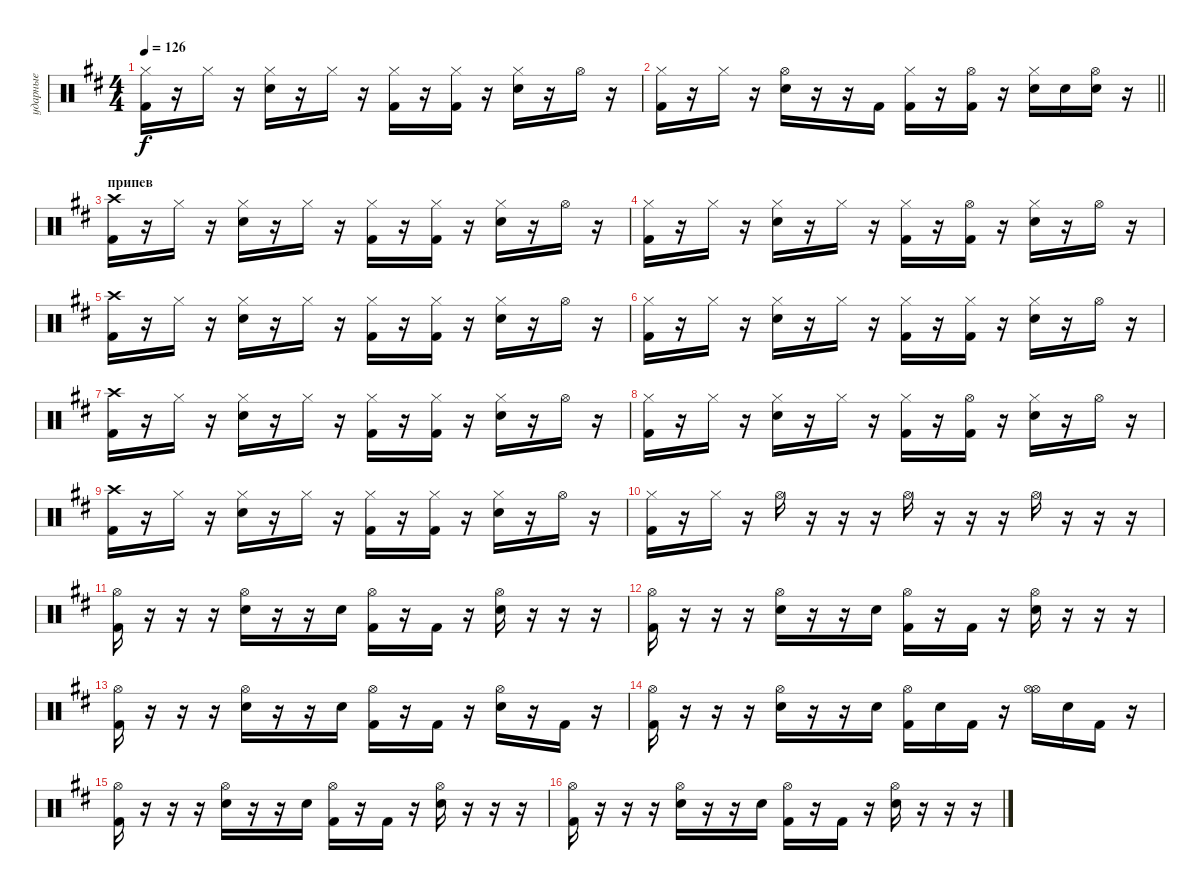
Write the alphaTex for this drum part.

\track ("ударные" "ударные") {instrument percussion}
\staff {score}
\articulation defaults
\ts (4 4)
\tempo 126
\clef neutral
\ks d
("Hi-Hat (closed)" "Kick (hit) 2").16{dy f} r.16 "Hi-Hat (closed)".16 r.16 ("Hi-Hat (closed)" "Electric Snare (hit)").16 r.16 "Hi-Hat (closed)".16 r.16 ("Hi-Hat (closed)" "Kick (hit) 2").16 r.16 ("Hi-Hat (closed)" "Kick (hit) 2").16 r.16 ("Hi-Hat (closed)" "Electric Snare (hit)").16 r.16 "Hi-Hat (open)".16 r.16 |
\barLineRight lightlight
("Hi-Hat (closed)" "Kick (hit) 2").16 r.16 "Hi-Hat (closed)".16 r.16 ("Hi-Hat (open)" "Electric Snare (hit)").16 r.16 r.16 "Kick (hit) 2".16 ("Hi-Hat (closed)" "Kick (hit) 2").16 r.16 ("Hi-Hat (open)" "Kick (hit) 2").16 r.16 ("Hi-Hat (closed)" "Electric Snare (hit)").16 "Electric Snare (hit)".16 ("Electric Snare (hit)" "Hi-Hat (open)").16 r.16 |
\section ("" "припев")
("Crash high (hit)" "Kick (hit) 2").16 r.16 "Hi-Hat (closed)".16 r.16 ("Hi-Hat (closed)" "Electric Snare (hit)").16 r.16 "Hi-Hat (closed)".16 r.16 ("Hi-Hat (closed)" "Kick (hit) 2").16 r.16 ("Hi-Hat (closed)" "Kick (hit) 2").16 r.16 ("Hi-Hat (closed)" "Electric Snare (hit)").16 r.16 "Hi-Hat (open)".16 r.16 |
("Hi-Hat (closed)" "Kick (hit) 2").16 r.16 "Hi-Hat (closed)".16 r.16 ("Hi-Hat (closed)" "Electric Snare (hit)").16 r.16 "Hi-Hat (closed)".16 r.16 ("Hi-Hat (closed)" "Kick (hit) 2").16 r.16 ("Hi-Hat (open)" "Kick (hit) 2").16 r.16 ("Hi-Hat (closed)" "Electric Snare (hit)").16 r.16 "Hi-Hat (open)".16 r.16 |
("Crash high (hit)" "Kick (hit) 2").16 r.16 "Hi-Hat (closed)".16 r.16 ("Hi-Hat (closed)" "Electric Snare (hit)").16 r.16 "Hi-Hat (closed)".16 r.16 ("Hi-Hat (closed)" "Kick (hit) 2").16 r.16 ("Hi-Hat (closed)" "Kick (hit) 2").16 r.16 ("Hi-Hat (closed)" "Electric Snare (hit)").16 r.16 "Hi-Hat (open)".16 r.16 |
("Hi-Hat (closed)" "Kick (hit) 2").16 r.16 "Hi-Hat (closed)".16 r.16 ("Hi-Hat (closed)" "Electric Snare (hit)").16 r.16 "Hi-Hat (closed)".16 r.16 ("Hi-Hat (closed)" "Kick (hit) 2").16 r.16 ("Hi-Hat (closed)" "Kick (hit) 2").16 r.16 ("Hi-Hat (closed)" "Electric Snare (hit)").16 r.16 "Hi-Hat (open)".16 r.16 |
("Crash high (hit)" "Kick (hit) 2").16 r.16 "Hi-Hat (closed)".16 r.16 ("Hi-Hat (closed)" "Electric Snare (hit)").16 r.16 "Hi-Hat (closed)".16 r.16 ("Hi-Hat (closed)" "Kick (hit) 2").16 r.16 ("Hi-Hat (closed)" "Kick (hit) 2").16 r.16 ("Hi-Hat (closed)" "Electric Snare (hit)").16 r.16 "Hi-Hat (open)".16 r.16 |
("Hi-Hat (closed)" "Kick (hit) 2").16 r.16 "Hi-Hat (closed)".16 r.16 ("Hi-Hat (closed)" "Electric Snare (hit)").16 r.16 "Hi-Hat (closed)".16 r.16 ("Hi-Hat (closed)" "Kick (hit) 2").16 r.16 ("Hi-Hat (open)" "Kick (hit) 2").16 r.16 ("Hi-Hat (closed)" "Electric Snare (hit)").16 r.16 "Hi-Hat (open)".16 r.16 |
("Crash high (hit)" "Kick (hit) 2").16 r.16 "Hi-Hat (closed)".16 r.16 ("Hi-Hat (closed)" "Electric Snare (hit)").16 r.16 "Hi-Hat (closed)".16 r.16 ("Hi-Hat (closed)" "Kick (hit) 2").16 r.16 ("Hi-Hat (closed)" "Kick (hit) 2").16 r.16 ("Hi-Hat (closed)" "Electric Snare (hit)").16 r.16 "Hi-Hat (open)".16 r.16 |
("Hi-Hat (closed)" "Kick (hit) 2").16 r.16 "Hi-Hat (closed)".16 r.16 "Hi-Hat (open)".16 r.16 r.16 r.16 "Hi-Hat (open)".16 r.16 r.16 r.16 "Hi-Hat (open)".16 r.16 r.16 r.16 |
("Hi-Hat (open)" "Kick (hit) 2").16 r.16 r.16 r.16 ("Hi-Hat (open)" "Electric Snare (hit)").16 r.16 r.16 "Electric Snare (hit)".16 ("Hi-Hat (open)" "Kick (hit) 2").16 r.16 "Kick (hit) 2".16 r.16 ("Hi-Hat (open)" "Electric Snare (hit)").16 r.16 r.16 r.16 |
("Hi-Hat (open)" "Kick (hit) 2").16 r.16 r.16 r.16 ("Hi-Hat (open)" "Electric Snare (hit)").16 r.16 r.16 "Electric Snare (hit)".16 ("Hi-Hat (open)" "Kick (hit) 2").16 r.16 "Kick (hit) 2".16 r.16 ("Hi-Hat (open)" "Electric Snare (hit)").16 r.16 r.16 r.16 |
("Hi-Hat (open)" "Kick (hit) 2").16 r.16 r.16 r.16 ("Hi-Hat (open)" "Electric Snare (hit)").16 r.16 r.16 "Electric Snare (hit)".16 ("Hi-Hat (open)" "Kick (hit) 2").16 r.16 "Kick (hit) 2".16 r.16 ("Hi-Hat (open)" "Electric Snare (hit)").16 r.16 "Kick (hit) 2".16 r.16 |
("Hi-Hat (open)" "Kick (hit) 2").16 r.16 r.16 r.16 ("Hi-Hat (open)" "Electric Snare (hit)").16 r.16 r.16 "Electric Snare (hit)".16 ("Hi-Hat (open)" "Kick (hit) 2").16 "Electric Snare (hit)".16 "Kick (hit) 2".16 r.16 ("Hi-Hat (open)" "Hi-Hat (open)").16 "Electric Snare (hit)".16 "Kick (hit) 2".16 r.16 |
("Hi-Hat (open)" "Kick (hit) 2").16 r.16 r.16 r.16 ("Hi-Hat (open)" "Electric Snare (hit)").16 r.16 r.16 "Electric Snare (hit)".16 ("Hi-Hat (open)" "Kick (hit) 2").16 r.16 "Kick (hit) 2".16 r.16 ("Hi-Hat (open)" "Electric Snare (hit)").16 r.16 r.16 r.16 |
("Hi-Hat (open)" "Kick (hit) 2").16 r.16 r.16 r.16 ("Hi-Hat (open)" "Electric Snare (hit)").16 r.16 r.16 "Electric Snare (hit)".16 ("Hi-Hat (open)" "Kick (hit) 2").16 r.16 "Kick (hit) 2".16 r.16 ("Hi-Hat (open)" "Electric Snare (hit)").16 r.16 r.16 r.16
